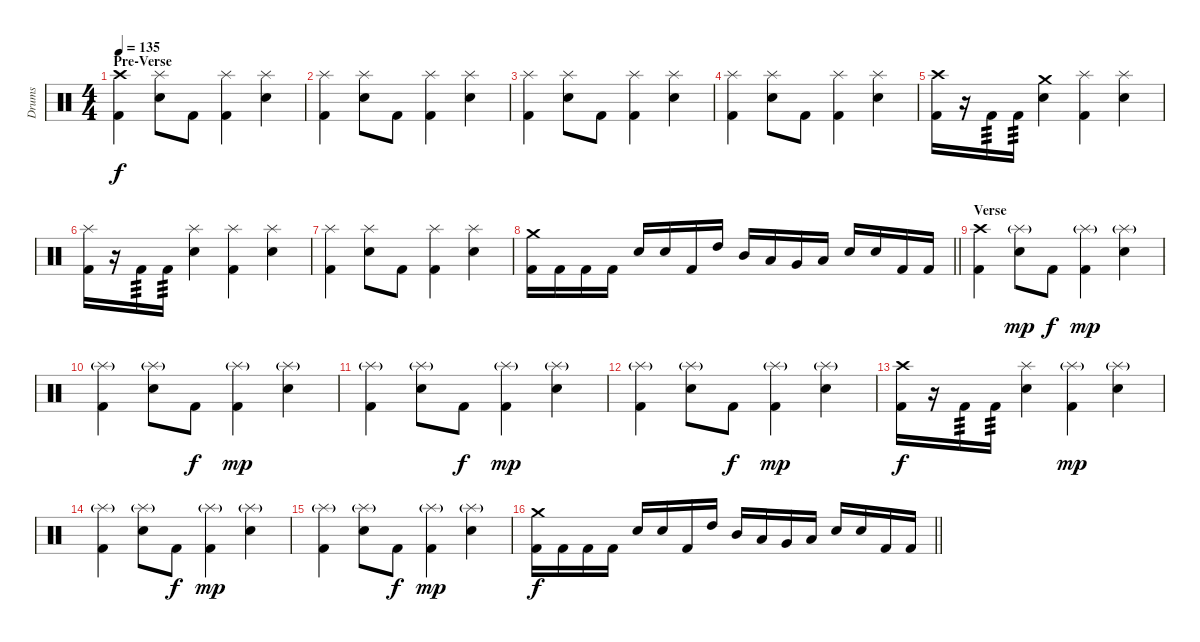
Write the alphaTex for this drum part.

\track ("Drums" "Drums") {instrument percussion}
\staff {score}
\articulation defaults
\ts (4 4)
\section ("" "Pre-Verse")
\tempo 135
\clef neutral
\ks c
("Kick (hit) 2" "Crash high (hit)").4{dy f} ("Snare (hit) 2" "Splash (hit)").8 "Kick (hit) 2".8 ("Kick (hit) 2" "Splash (hit)").4 ("Snare (hit) 2" "Splash (hit)").4 |
("Kick (hit) 2" "Splash (hit)").4 ("Snare (hit) 2" "Splash (hit)").8 "Kick (hit) 2".8 ("Kick (hit) 2" "Splash (hit)").4 ("Snare (hit) 2" "Splash (hit)").4 |
("Kick (hit) 2" "Splash (hit)").4 ("Snare (hit) 2" "Splash (hit)").8 "Kick (hit) 2".8 ("Kick (hit) 2" "Splash (hit)").4 ("Snare (hit) 2" "Splash (hit)").4 |
("Kick (hit) 2" "Splash (hit)").4 ("Snare (hit) 2" "Splash (hit)").8 "Kick (hit) 2".8 ("Kick (hit) 2" "Splash (hit)").4 ("Snare (hit) 2" "Splash (hit)").4 |
("Kick (hit) 2" "Crash high (hit)").16 r.16 "Kick (hit) 2".16{tp 3} "Kick (hit) 2".16{tp 3} ("Snare (hit) 2" "Crash medium (hit)").4 ("Kick (hit) 2" "Splash (hit)").4 ("Snare (hit) 2" "Splash (hit)").4 |
("Kick (hit) 2" "Splash (hit)").16 r.16 "Kick (hit) 2".16{tp 3} "Kick (hit) 2".16{tp 3} ("Snare (hit) 2" "Splash (hit)").4 ("Kick (hit) 2" "Splash (hit)").4 ("Snare (hit) 2" "Splash (hit)").4 |
("Kick (hit) 2" "Splash (hit)").4 ("Snare (hit) 2" "Splash (hit)").8 "Kick (hit) 2".8 ("Kick (hit) 2" "Splash (hit)").4 ("Snare (hit) 2" "Splash (hit)").4 |
\barLineRight lightlight
("Kick (hit) 2" "Crash medium (hit)").16 "Kick (hit) 2".16 "Kick (hit) 2".16 "Kick (hit) 2".16 "Snare (hit) 2".16 "Snare (hit) 2".16 "Kick (hit) 2".16 "High Tom (hit)".16 "Mid Tom (hit)".16 "Low Tom (hit)".16 "Very Low Tom (hit)".16 "Low Floor Tom (hit)".16 "Snare (hit) 2".16 "Snare (hit) 2".16 "Kick (hit) 2".16 "Kick (hit) 2".16 |
\section ("" "Verse")
("Kick (hit) 2" "Crash high (hit)").4 ("Snare (hit) 2" "Splash (hit)"{g}).8{dy mp} "Kick (hit) 2".8{dy f} ("Kick (hit) 2" "Splash (hit)"{g}).4{dy mp} ("Snare (hit) 2" "Splash (hit)"{g}).4 |
("Kick (hit) 2" "Splash (hit)"{g}).4 ("Snare (hit) 2" "Splash (hit)"{g}).8 "Kick (hit) 2".8{dy f} ("Kick (hit) 2" "Splash (hit)"{g}).4{dy mp} ("Snare (hit) 2" "Splash (hit)"{g}).4 |
("Kick (hit) 2" "Splash (hit)"{g}).4 ("Snare (hit) 2" "Splash (hit)"{g}).8 "Kick (hit) 2".8{dy f} ("Kick (hit) 2" "Splash (hit)"{g}).4{dy mp} ("Snare (hit) 2" "Splash (hit)"{g}).4 |
("Kick (hit) 2" "Splash (hit)"{g}).4 ("Snare (hit) 2" "Splash (hit)"{g}).8 "Kick (hit) 2".8{dy f} ("Kick (hit) 2" "Splash (hit)"{g}).4{dy mp} ("Snare (hit) 2" "Splash (hit)"{g}).4 |
("Kick (hit) 2" "Crash high (hit)").16{dy f} r.16 "Kick (hit) 2".16{tp 3} "Kick (hit) 2".16{tp 3} ("Snare (hit) 2" "Splash (hit)").4 ("Kick (hit) 2" "Splash (hit)"{g}).4{dy mp} ("Snare (hit) 2" "Splash (hit)"{g}).4 |
("Kick (hit) 2" "Splash (hit)"{g}).4 ("Snare (hit) 2" "Splash (hit)"{g}).8 "Kick (hit) 2".8{dy f} ("Kick (hit) 2" "Splash (hit)"{g}).4{dy mp} ("Snare (hit) 2" "Splash (hit)"{g}).4 |
("Kick (hit) 2" "Splash (hit)"{g}).4 ("Snare (hit) 2" "Splash (hit)"{g}).8 "Kick (hit) 2".8{dy f} ("Kick (hit) 2" "Splash (hit)"{g}).4{dy mp} ("Snare (hit) 2" "Splash (hit)"{g}).4 |
\barLineRight lightlight
("Kick (hit) 2" "Crash medium (hit)").16{dy f} "Kick (hit) 2".16 "Kick (hit) 2".16 "Kick (hit) 2".16 "Snare (hit) 2".16 "Snare (hit) 2".16 "Kick (hit) 2".16 "High Tom (hit)".16 "Mid Tom (hit)".16 "Low Tom (hit)".16 "Very Low Tom (hit)".16 "Low Floor Tom (hit)".16 "Snare (hit) 2".16 "Snare (hit) 2".16 "Kick (hit) 2".16 "Kick (hit) 2".16
